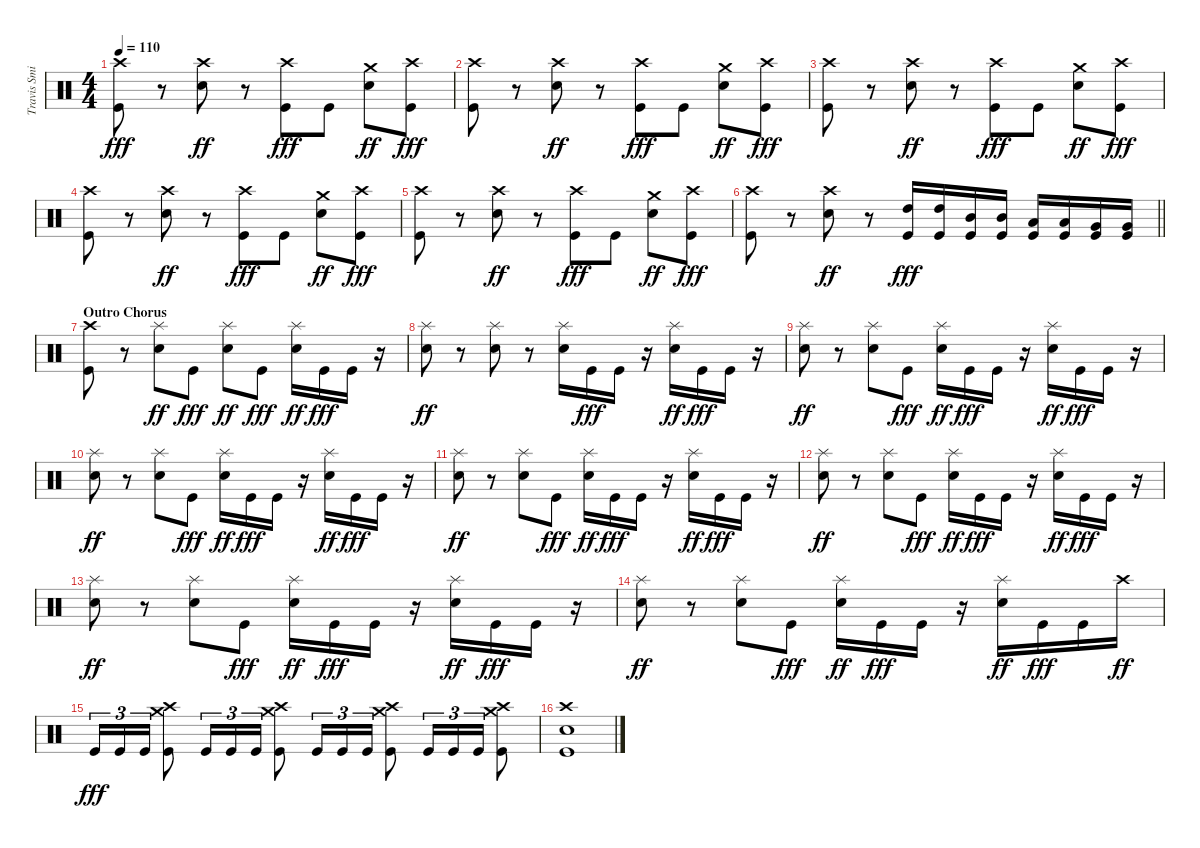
\track ("Travis Smith" "Travis Smi") {instrument percussion}
\staff {score}
\articulation defaults
\ts (4 4)
\tempo 110
\clef neutral
\ks c
("Crash high (hit)" "Kick (hit)").8{dy fff} r.8 ("Crash high (hit)" "Electric Snare (hit)").8{dy ff} r.8 ("Crash high (hit)" "Kick (hit)").8{dy fff} "Kick (hit)".8 ("Crash medium (hit)" "Electric Snare (hit)").8{dy ff} ("Crash high (hit)" "Kick (hit)").8{dy fff} |
("Crash high (hit)" "Kick (hit)").8 r.8 ("Crash high (hit)" "Electric Snare (hit)").8{dy ff} r.8 ("Crash high (hit)" "Kick (hit)").8{dy fff} "Kick (hit)".8 ("Crash medium (hit)" "Electric Snare (hit)").8{dy ff} ("Crash high (hit)" "Kick (hit)").8{dy fff} |
("Crash high (hit)" "Kick (hit)").8 r.8 ("Crash high (hit)" "Electric Snare (hit)").8{dy ff} r.8 ("Crash high (hit)" "Kick (hit)").8{dy fff} "Kick (hit)".8 ("Crash medium (hit)" "Electric Snare (hit)").8{dy ff} ("Crash high (hit)" "Kick (hit)").8{dy fff} |
("Crash high (hit)" "Kick (hit)").8 r.8 ("Crash high (hit)" "Electric Snare (hit)").8{dy ff} r.8 ("Crash high (hit)" "Kick (hit)").8{dy fff} "Kick (hit)".8 ("Crash medium (hit)" "Electric Snare (hit)").8{dy ff} ("Crash high (hit)" "Kick (hit)").8{dy fff} |
("Crash high (hit)" "Kick (hit)").8 r.8 ("Crash high (hit)" "Electric Snare (hit)").8{dy ff} r.8 ("Crash high (hit)" "Kick (hit)").8{dy fff} "Kick (hit)".8 ("Crash medium (hit)" "Electric Snare (hit)").8{dy ff} ("Crash high (hit)" "Kick (hit)").8{dy fff} |
\barLineRight lightlight
("Crash high (hit)" "Kick (hit)").8 r.8 ("Crash high (hit)" "Electric Snare (hit)").8{dy ff} r.8 ("High Tom (hit)" "Kick (hit)").16{dy fff} ("High Tom (hit)" "Kick (hit)").16 ("Mid Tom (hit)" "Kick (hit)").16 ("Mid Tom (hit)" "Kick (hit)").16 ("Low Floor Tom (hit)" "Kick (hit)").16 ("Low Floor Tom (hit)" "Kick (hit)").16 ("Very Low Tom (hit)" "Kick (hit)").16 ("Very Low Tom (hit)" "Kick (hit)").16 |
\section ("" "Outro Chorus")
("Crash high (hit)" "Kick (hit)").8 r.8 ("Splash (hit)" "Electric Snare (hit)").8{dy ff} "Kick (hit)".8{dy fff} ("Splash (hit)" "Electric Snare (hit)").8{dy ff} "Kick (hit)".8{dy fff} ("Splash (hit)" "Electric Snare (hit)").16{dy ff} "Kick (hit)".16{dy fff} "Kick (hit)".16 r.16 |
("Splash (hit)" "Electric Snare (hit)").8{dy ff} r.8 ("Splash (hit)" "Electric Snare (hit)").8 r.8 ("Splash (hit)" "Electric Snare (hit)").16 "Kick (hit)".16{dy fff} "Kick (hit)".16 r.16 ("Splash (hit)" "Electric Snare (hit)").16{dy ff} "Kick (hit)".16{dy fff} "Kick (hit)".16 r.16 |
("Splash (hit)" "Electric Snare (hit)").8{dy ff} r.8 ("Splash (hit)" "Electric Snare (hit)").8 "Kick (hit)".8{dy fff} ("Splash (hit)" "Electric Snare (hit)").16{dy ff} "Kick (hit)".16{dy fff} "Kick (hit)".16 r.16 ("Splash (hit)" "Electric Snare (hit)").16{dy ff} "Kick (hit)".16{dy fff} "Kick (hit)".16 r.16 |
("Splash (hit)" "Electric Snare (hit)").8{dy ff} r.8 ("Splash (hit)" "Electric Snare (hit)").8 "Kick (hit)".8{dy fff} ("Splash (hit)" "Electric Snare (hit)").16{dy ff} "Kick (hit)".16{dy fff} "Kick (hit)".16 r.16 ("Splash (hit)" "Electric Snare (hit)").16{dy ff} "Kick (hit)".16{dy fff} "Kick (hit)".16 r.16 |
("Splash (hit)" "Electric Snare (hit)").8{dy ff} r.8 ("Splash (hit)" "Electric Snare (hit)").8 "Kick (hit)".8{dy fff} ("Splash (hit)" "Electric Snare (hit)").16{dy ff} "Kick (hit)".16{dy fff} "Kick (hit)".16 r.16 ("Splash (hit)" "Electric Snare (hit)").16{dy ff} "Kick (hit)".16{dy fff} "Kick (hit)".16 r.16 |
("Splash (hit)" "Electric Snare (hit)").8{dy ff} r.8 ("Splash (hit)" "Electric Snare (hit)").8 "Kick (hit)".8{dy fff} ("Splash (hit)" "Electric Snare (hit)").16{dy ff} "Kick (hit)".16{dy fff} "Kick (hit)".16 r.16 ("Splash (hit)" "Electric Snare (hit)").16{dy ff} "Kick (hit)".16{dy fff} "Kick (hit)".16 r.16 |
("Splash (hit)" "Electric Snare (hit)").8{dy ff} r.8 ("Splash (hit)" "Electric Snare (hit)").8 "Kick (hit)".8{dy fff} ("Splash (hit)" "Electric Snare (hit)").16{dy ff} "Kick (hit)".16{dy fff} "Kick (hit)".16 r.16 ("Splash (hit)" "Electric Snare (hit)").16{dy ff} "Kick (hit)".16{dy fff} "Kick (hit)".16 r.16 |
("Splash (hit)" "Electric Snare (hit)").8{dy ff} r.8 ("Splash (hit)" "Electric Snare (hit)").8 "Kick (hit)".8{dy fff} ("Splash (hit)" "Electric Snare (hit)").16{dy ff} "Kick (hit)".16{dy fff} "Kick (hit)".16 r.16 ("Splash (hit)" "Electric Snare (hit)").16{dy ff} "Kick (hit)".16{dy fff} "Kick (hit)".16 "Crash high (hit)".16{dy ff} |
"Kick (hit)".16{tu (3 2) dy fff} "Kick (hit)".16{tu (3 2)} "Kick (hit)".16{tu (3 2)} ("Crash high (hit)" "Crash medium (hit)" "Kick (hit)").8 "Kick (hit)".16{tu (3 2)} "Kick (hit)".16{tu (3 2)} "Kick (hit)".16{tu (3 2)} ("Crash high (hit)" "Crash medium (hit)" "Kick (hit)").8 "Kick (hit)".16{tu (3 2)} "Kick (hit)".16{tu (3 2)} "Kick (hit)".16{tu (3 2)} ("Crash high (hit)" "Crash medium (hit)" "Kick (hit)").8 "Kick (hit)".16{tu (3 2)} "Kick (hit)".16{tu (3 2)} "Kick (hit)".16{tu (3 2)} ("Crash high (hit)" "Crash medium (hit)" "Kick (hit)").8 |
("Crash high (hit)" "Electric Snare (hit)" "Kick (hit)").1
